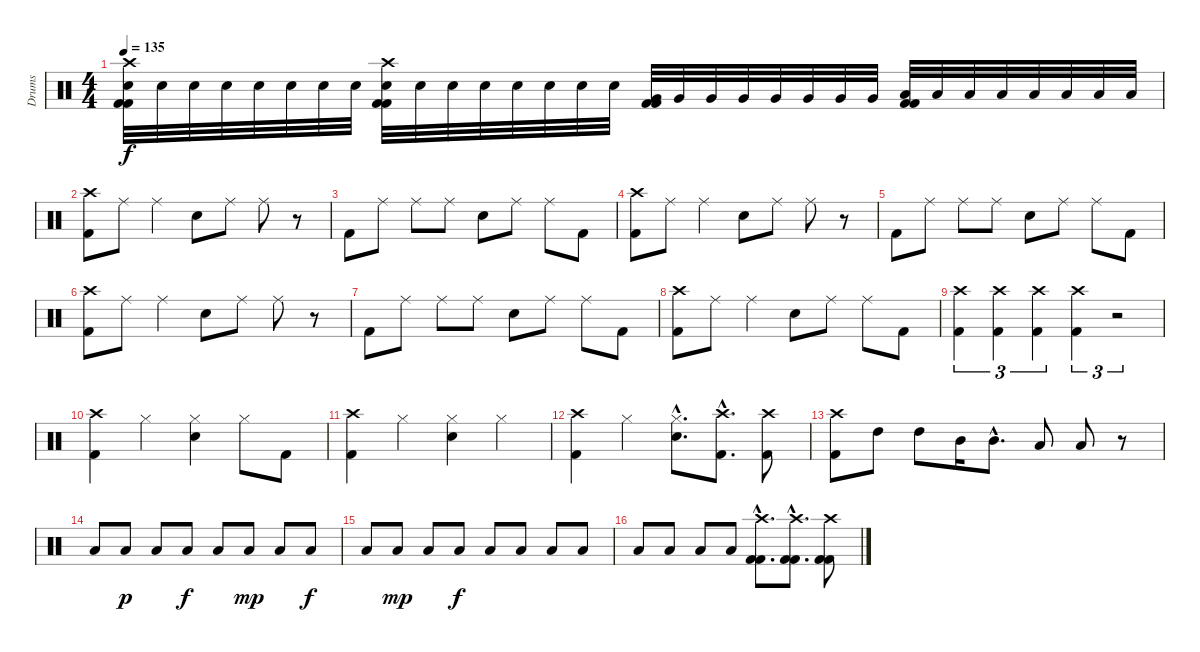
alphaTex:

\track ("Drums" "Drums") {instrument percussion}
\staff {score}
\articulation defaults
\ts (4 4)
\tempo 135
\clef neutral
\ks c
("Crash high (hit)" "Electric Snare (hit)" "Kick (hit) 2" "Kick (hit) 2").32{dy f} "Electric Snare (hit)".32 "Electric Snare (hit)".32 "Electric Snare (hit)".32 "Electric Snare (hit)".32 "Electric Snare (hit)".32 "Electric Snare (hit)".32 "Electric Snare (hit)".32 ("Crash high (hit)" "Electric Snare (hit)" "Kick (hit) 2" "Kick (hit) 2").32 "Electric Snare (hit)".32 "Electric Snare (hit)".32 "Electric Snare (hit)".32 "Electric Snare (hit)".32 "Electric Snare (hit)".32 "Electric Snare (hit)".32 "Electric Snare (hit)".32 ("Very Low Tom (hit)" "Kick (hit) 2" "Kick (hit) 2").32 "Very Low Tom (hit)".32 "Very Low Tom (hit)".32 "Very Low Tom (hit)".32 "Very Low Tom (hit)".32 "Very Low Tom (hit)".32 "Very Low Tom (hit)".32 "Very Low Tom (hit)".32 ("Low Floor Tom (hit)" "Kick (hit) 2" "Kick (hit) 2").32 "Low Floor Tom (hit)".32 "Low Floor Tom (hit)".32 "Low Floor Tom (hit)".32 "Low Floor Tom (hit)".32 "Low Floor Tom (hit)".32 "Low Floor Tom (hit)".32 "Low Floor Tom (hit)".32 |
("Crash high (hit)" "Kick (hit) 2").8 "Ride (middle)".8 "Ride (middle)".4 "Electric Snare (hit)".8 "Ride (middle)".8 "Ride (middle)".8 r.8 |
"Kick (hit) 2".8 "Ride (middle)".8 "Ride (middle)".8 "Ride (middle)".8 "Electric Snare (hit)".8 "Ride (middle)".8 "Ride (middle)".8 "Kick (hit) 2".8 |
("Crash high (hit)" "Kick (hit) 2").8 "Ride (middle)".8 "Ride (middle)".4 "Electric Snare (hit)".8 "Ride (middle)".8 "Ride (middle)".8 r.8 |
"Kick (hit) 2".8 "Ride (middle)".8 "Ride (middle)".8 "Ride (middle)".8 "Electric Snare (hit)".8 "Ride (middle)".8 "Ride (middle)".8 "Kick (hit) 2".8 |
("Crash high (hit)" "Kick (hit) 2").8 "Ride (middle)".8 "Ride (middle)".4 "Electric Snare (hit)".8 "Ride (middle)".8 "Ride (middle)".8 r.8 |
"Kick (hit) 2".8 "Ride (middle)".8 "Ride (middle)".8 "Ride (middle)".8 "Electric Snare (hit)".8 "Ride (middle)".8 "Ride (middle)".8 "Kick (hit) 2".8 |
("Crash high (hit)" "Kick (hit) 2").8 "Ride (middle)".8 "Ride (middle)".4 "Electric Snare (hit)".8 "Ride (middle)".8 "Ride (middle)".8 "Kick (hit) 2".8 |
("Crash high (hit)" "Kick (hit) 2").4{tu (3 2)} ("Crash high (hit)" "Kick (hit) 2").4{tu (3 2)} ("Crash high (hit)" "Kick (hit) 2").4{tu (3 2)} ("Crash high (hit)" "Kick (hit) 2").4{tu (3 2)} r.2{tu (3 2)} |
("Crash high (hit)" "Kick (hit) 2").4 "Hi-Hat (closed)".4 ("Hi-Hat (closed)" "Electric Snare (hit)").4 "Hi-Hat (closed)".8 "Kick (hit) 2".8 |
("Crash high (hit)" "Kick (hit) 2").4 "Hi-Hat (closed)".4 ("Hi-Hat (closed)" "Electric Snare (hit)").4 "Hi-Hat (closed)".4 |
("Crash high (hit)" "Kick (hit) 2").4 "Hi-Hat (closed)".4 ("Hi-Hat (closed)"{hac} "Electric Snare (hit)"{hac}).8{d} ("Crash high (hit)"{hac} "Kick (hit) 2"{hac}).8{d} ("Crash high (hit)" "Kick (hit) 2").8 |
("Crash high (hit)" "Kick (hit) 2").8 "High Tom (hit)".8 "High Tom (hit)".8 "Mid Tom (hit)".16 "Mid Tom (hit)"{hac}.8{d} "Low Tom (hit)".8 "Low Tom (hit)".8 r.8 |
"Low Floor Tom (hit)".8 "Low Floor Tom (hit)".8{dy p} "Low Floor Tom (hit)".8 "Low Floor Tom (hit)".8{dy f} "Low Floor Tom (hit)".8 "Low Floor Tom (hit)".8{dy mp} "Low Floor Tom (hit)".8 "Low Floor Tom (hit)".8{dy f} |
"Low Floor Tom (hit)".8 "Low Floor Tom (hit)".8{dy mp} "Low Floor Tom (hit)".8 "Low Floor Tom (hit)".8{dy f} "Low Floor Tom (hit)".8 "Low Floor Tom (hit)".8 "Low Floor Tom (hit)".8 "Low Floor Tom (hit)".8 |
"Low Floor Tom (hit)".8 "Low Floor Tom (hit)".8 "Low Floor Tom (hit)".8 "Low Floor Tom (hit)".8 ("Crash high (hit)"{hac} "Kick (hit) 2"{hac} "Kick (hit) 2"{hac}).8{d} ("Crash high (hit)"{hac} "Kick (hit) 2"{hac} "Kick (hit) 2"{hac}).8{d} ("Crash high (hit)" "Kick (hit) 2" "Kick (hit) 2").8
